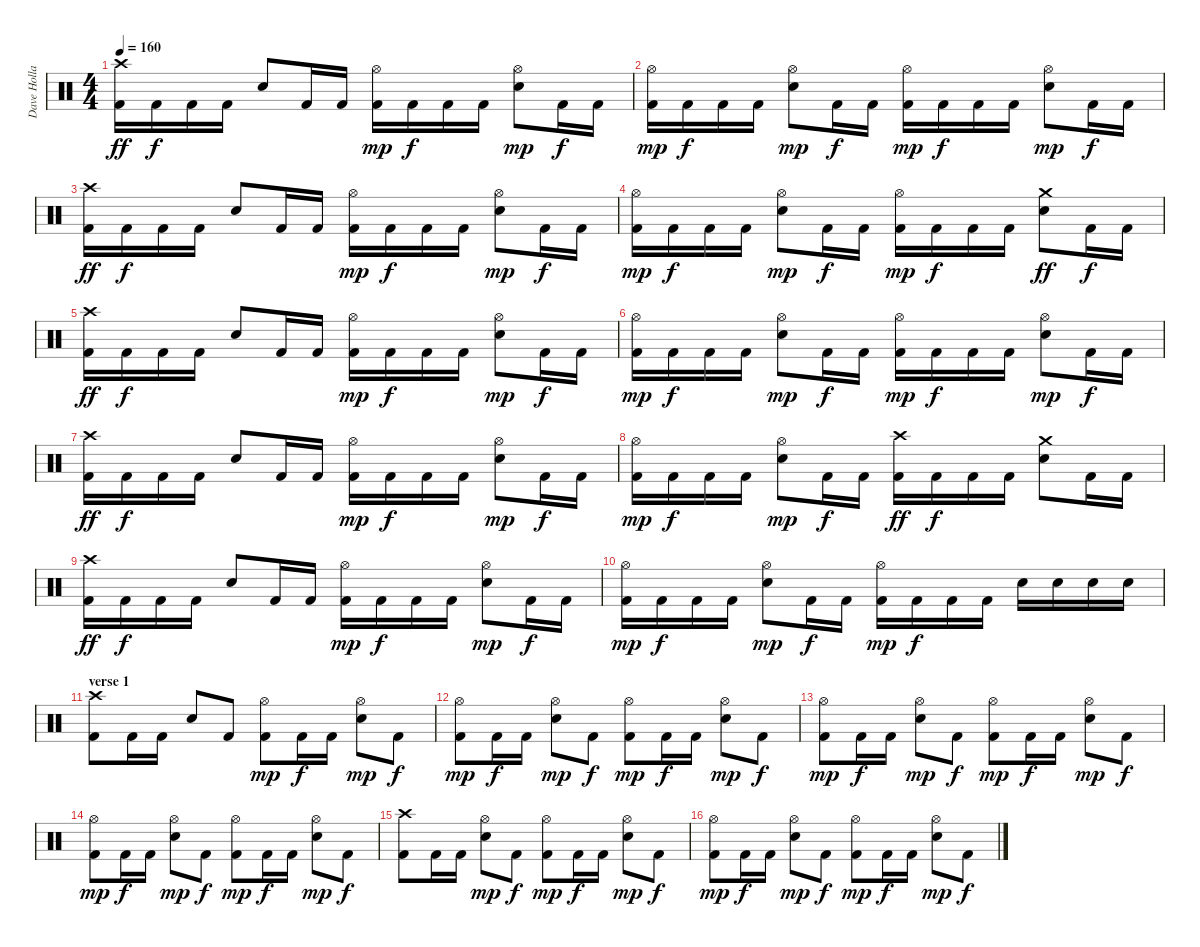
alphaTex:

\track ("Dave Holland" "Dave Holla") {instrument percussion}
\staff {score}
\articulation defaults
\ts (4 4)
\tempo 160
\clef neutral
\ks c
("Kick (hit) 2" "Crash high (hit)").16{dy ff} "Kick (hit) 2".16{dy f} "Kick (hit) 2".16 "Kick (hit) 2".16 "Snare (hit) 2".8 "Kick (hit) 2".16 "Kick (hit) 2".16 ("Kick (hit) 2" "Hi-Hat (open)").16{dy mp} "Kick (hit) 2".16{dy f} "Kick (hit) 2".16 "Kick (hit) 2".16 ("Hi-Hat (open)" "Snare (hit) 2").8{dy mp} "Kick (hit) 2".16{dy f} "Kick (hit) 2".16 |
("Kick (hit) 2" "Hi-Hat (open)").16{dy mp} "Kick (hit) 2".16{dy f} "Kick (hit) 2".16 "Kick (hit) 2".16 ("Hi-Hat (open)" "Snare (hit) 2").8{dy mp} "Kick (hit) 2".16{dy f} "Kick (hit) 2".16 ("Kick (hit) 2" "Hi-Hat (open)").16{dy mp} "Kick (hit) 2".16{dy f} "Kick (hit) 2".16 "Kick (hit) 2".16 ("Hi-Hat (open)" "Snare (hit) 2").8{dy mp} "Kick (hit) 2".16{dy f} "Kick (hit) 2".16 |
("Kick (hit) 2" "Crash high (hit)").16{dy ff} "Kick (hit) 2".16{dy f} "Kick (hit) 2".16 "Kick (hit) 2".16 "Snare (hit) 2".8 "Kick (hit) 2".16 "Kick (hit) 2".16 ("Kick (hit) 2" "Hi-Hat (open)").16{dy mp} "Kick (hit) 2".16{dy f} "Kick (hit) 2".16 "Kick (hit) 2".16 ("Hi-Hat (open)" "Snare (hit) 2").8{dy mp} "Kick (hit) 2".16{dy f} "Kick (hit) 2".16 |
("Kick (hit) 2" "Hi-Hat (open)").16{dy mp} "Kick (hit) 2".16{dy f} "Kick (hit) 2".16 "Kick (hit) 2".16 ("Hi-Hat (open)" "Snare (hit) 2").8{dy mp} "Kick (hit) 2".16{dy f} "Kick (hit) 2".16 ("Kick (hit) 2" "Hi-Hat (open)").16{dy mp} "Kick (hit) 2".16{dy f} "Kick (hit) 2".16 "Kick (hit) 2".16 ("Crash medium (hit)" "Snare (hit) 2").8{dy ff} "Kick (hit) 2".16{dy f} "Kick (hit) 2".16 |
("Kick (hit) 2" "Crash high (hit)").16{dy ff} "Kick (hit) 2".16{dy f} "Kick (hit) 2".16 "Kick (hit) 2".16 "Snare (hit) 2".8 "Kick (hit) 2".16 "Kick (hit) 2".16 ("Kick (hit) 2" "Hi-Hat (open)").16{dy mp} "Kick (hit) 2".16{dy f} "Kick (hit) 2".16 "Kick (hit) 2".16 ("Hi-Hat (open)" "Snare (hit) 2").8{dy mp} "Kick (hit) 2".16{dy f} "Kick (hit) 2".16 |
("Kick (hit) 2" "Hi-Hat (open)").16{dy mp} "Kick (hit) 2".16{dy f} "Kick (hit) 2".16 "Kick (hit) 2".16 ("Hi-Hat (open)" "Snare (hit) 2").8{dy mp} "Kick (hit) 2".16{dy f} "Kick (hit) 2".16 ("Kick (hit) 2" "Hi-Hat (open)").16{dy mp} "Kick (hit) 2".16{dy f} "Kick (hit) 2".16 "Kick (hit) 2".16 ("Hi-Hat (open)" "Snare (hit) 2").8{dy mp} "Kick (hit) 2".16{dy f} "Kick (hit) 2".16 |
("Kick (hit) 2" "Crash high (hit)").16{dy ff} "Kick (hit) 2".16{dy f} "Kick (hit) 2".16 "Kick (hit) 2".16 "Snare (hit) 2".8 "Kick (hit) 2".16 "Kick (hit) 2".16 ("Kick (hit) 2" "Hi-Hat (open)").16{dy mp} "Kick (hit) 2".16{dy f} "Kick (hit) 2".16 "Kick (hit) 2".16 ("Hi-Hat (open)" "Snare (hit) 2").8{dy mp} "Kick (hit) 2".16{dy f} "Kick (hit) 2".16 |
("Kick (hit) 2" "Hi-Hat (open)").16{dy mp} "Kick (hit) 2".16{dy f} "Kick (hit) 2".16 "Kick (hit) 2".16 ("Hi-Hat (open)" "Snare (hit) 2").8{dy mp} "Kick (hit) 2".16{dy f} "Kick (hit) 2".16 ("Kick (hit) 2" "Crash high (hit)").16{dy ff} "Kick (hit) 2".16{dy f} "Kick (hit) 2".16 "Kick (hit) 2".16 ("Crash medium (hit)" "Snare (hit) 2").8 "Kick (hit) 2".16 "Kick (hit) 2".16 |
("Kick (hit) 2" "Crash high (hit)").16{dy ff} "Kick (hit) 2".16{dy f} "Kick (hit) 2".16 "Kick (hit) 2".16 "Snare (hit) 2".8 "Kick (hit) 2".16 "Kick (hit) 2".16 ("Kick (hit) 2" "Hi-Hat (open)").16{dy mp} "Kick (hit) 2".16{dy f} "Kick (hit) 2".16 "Kick (hit) 2".16 ("Hi-Hat (open)" "Snare (hit) 2").8{dy mp} "Kick (hit) 2".16{dy f} "Kick (hit) 2".16 |
("Kick (hit) 2" "Hi-Hat (open)").16{dy mp} "Kick (hit) 2".16{dy f} "Kick (hit) 2".16 "Kick (hit) 2".16 ("Hi-Hat (open)" "Snare (hit) 2").8{dy mp} "Kick (hit) 2".16{dy f} "Kick (hit) 2".16 ("Kick (hit) 2" "Hi-Hat (open)").16{dy mp} "Kick (hit) 2".16{dy f} "Kick (hit) 2".16 "Kick (hit) 2".16 "Snare (hit) 2".16 "Snare (hit) 2".16 "Snare (hit) 2".16 "Snare (hit) 2".16 |
\section ("" "verse 1")
("Kick (hit) 2" "Crash high (hit)").8 "Kick (hit) 2".16 "Kick (hit) 2".16 "Snare (hit) 2".8 "Kick (hit) 2".8 ("Kick (hit) 2" "Hi-Hat (open)").8{dy mp} "Kick (hit) 2".16{dy f} "Kick (hit) 2".16 ("Hi-Hat (open)" "Snare (hit) 2").8{dy mp} "Kick (hit) 2".8{dy f} |
("Kick (hit) 2" "Hi-Hat (open)").8{dy mp} "Kick (hit) 2".16{dy f} "Kick (hit) 2".16 ("Hi-Hat (open)" "Snare (hit) 2").8{dy mp} "Kick (hit) 2".8{dy f} ("Kick (hit) 2" "Hi-Hat (open)").8{dy mp} "Kick (hit) 2".16{dy f} "Kick (hit) 2".16 ("Hi-Hat (open)" "Snare (hit) 2").8{dy mp} "Kick (hit) 2".8{dy f} |
("Kick (hit) 2" "Hi-Hat (open)").8{dy mp} "Kick (hit) 2".16{dy f} "Kick (hit) 2".16 ("Hi-Hat (open)" "Snare (hit) 2").8{dy mp} "Kick (hit) 2".8{dy f} ("Kick (hit) 2" "Hi-Hat (open)").8{dy mp} "Kick (hit) 2".16{dy f} "Kick (hit) 2".16 ("Hi-Hat (open)" "Snare (hit) 2").8{dy mp} "Kick (hit) 2".8{dy f} |
("Kick (hit) 2" "Hi-Hat (open)").8{dy mp} "Kick (hit) 2".16{dy f} "Kick (hit) 2".16 ("Hi-Hat (open)" "Snare (hit) 2").8{dy mp} "Kick (hit) 2".8{dy f} ("Kick (hit) 2" "Hi-Hat (open)").8{dy mp} "Kick (hit) 2".16{dy f} "Kick (hit) 2".16 ("Hi-Hat (open)" "Snare (hit) 2").8{dy mp} "Kick (hit) 2".8{dy f} |
("Kick (hit) 2" "Crash high (hit)").8 "Kick (hit) 2".16 "Kick (hit) 2".16 ("Hi-Hat (open)" "Snare (hit) 2").8{dy mp} "Kick (hit) 2".8{dy f} ("Kick (hit) 2" "Hi-Hat (open)").8{dy mp} "Kick (hit) 2".16{dy f} "Kick (hit) 2".16 ("Hi-Hat (open)" "Snare (hit) 2").8{dy mp} "Kick (hit) 2".8{dy f} |
("Kick (hit) 2" "Hi-Hat (open)").8{dy mp} "Kick (hit) 2".16{dy f} "Kick (hit) 2".16 ("Hi-Hat (open)" "Snare (hit) 2").8{dy mp} "Kick (hit) 2".8{dy f} ("Kick (hit) 2" "Hi-Hat (open)").8{dy mp} "Kick (hit) 2".16{dy f} "Kick (hit) 2".16 ("Hi-Hat (open)" "Snare (hit) 2").8{dy mp} "Kick (hit) 2".8{dy f}
